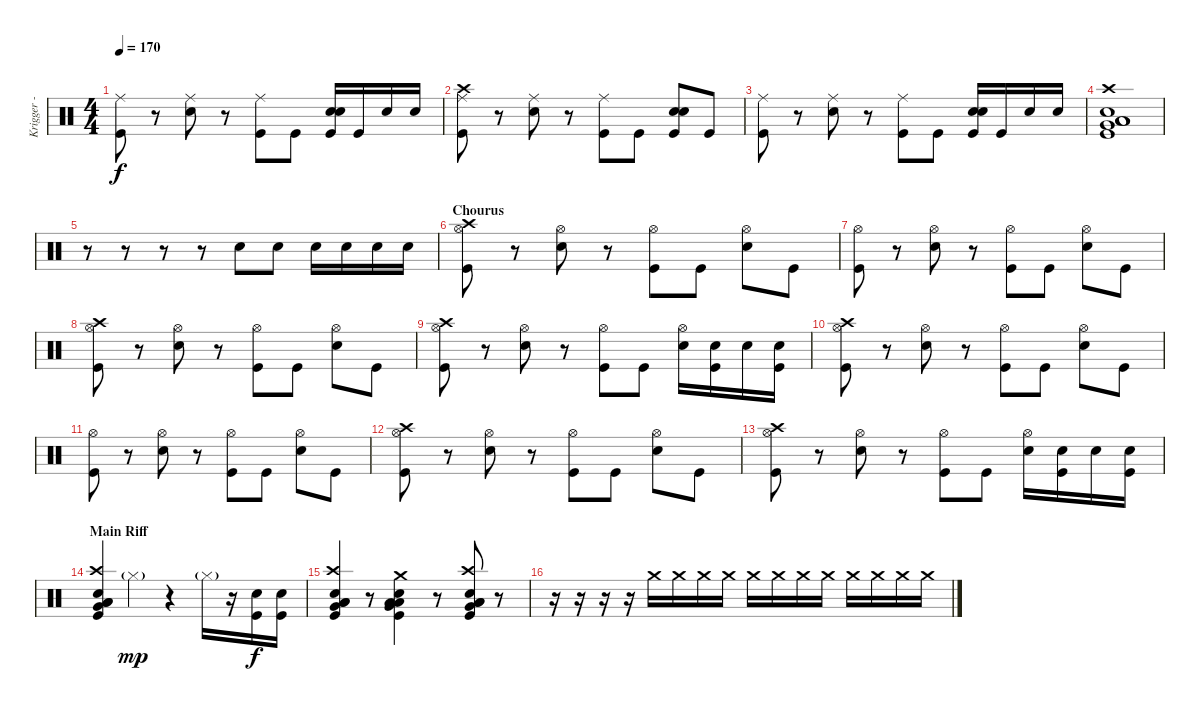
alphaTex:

\track ("Krigger - Drums" "Krigger - ") {instrument percussion}
\staff {score}
\articulation defaults
\ts (4 4)
\tempo 170
\clef neutral
\ks c
("Ride (middle)" "Kick (hit)").8{dy f} r.8 ("Ride (middle)" "Snare (hit) 2").8 r.8 ("Ride (middle)" "Kick (hit)").8 "Kick (hit)".8 ("Snare (hit)" "Snare (hit) 2" "Kick (hit)").16 "Kick (hit)".16 "Snare (hit) 2".16 "Snare (hit) 2".16 |
("Ride (middle)" "Crash high (hit)" "Kick (hit)").8 r.8 ("Ride (middle)" "Snare (hit) 2").8 r.8 ("Ride (middle)" "Kick (hit)").8 "Kick (hit)".8 ("Snare (hit)" "Snare (hit) 2" "Kick (hit)").8 "Kick (hit)".8 |
("Ride (middle)" "Kick (hit)").8 r.8 ("Ride (middle)" "Snare (hit) 2").8 r.8 ("Ride (middle)" "Kick (hit)").8 "Kick (hit)".8 ("Snare (hit)" "Snare (hit) 2" "Kick (hit)").16 "Kick (hit)".16 "Snare (hit) 2".16 "Snare (hit) 2".16 |
("Kick (hit)" "Snare (hit) 2" "Crash high (hit)" "Low Tom (hit)" "Very Low Tom (hit)" "Low Floor Tom (hit)").1 |
r.8 r.8 r.8 r.8 "Snare (hit) 2".8 "Snare (hit) 2".8 "Snare (hit) 2".16 "Snare (hit) 2".16 "Snare (hit) 2".16 "Snare (hit) 2".16 |
\section ("" "Chourus")
("Hi-Hat (open)" "Crash high (hit)" "Kick (hit)").8 r.8 ("Hi-Hat (open)" "Snare (hit) 2").8 r.8 ("Hi-Hat (open)" "Kick (hit)").8 "Kick (hit)".8 ("Hi-Hat (open)" "Snare (hit) 2").8 "Kick (hit)".8 |
("Hi-Hat (open)" "Kick (hit)").8 r.8 ("Hi-Hat (open)" "Snare (hit) 2").8 r.8 ("Hi-Hat (open)" "Kick (hit)").8 "Kick (hit)".8 ("Hi-Hat (open)" "Snare (hit) 2").8 "Kick (hit)".8 |
("Hi-Hat (open)" "Crash high (hit)" "Kick (hit)").8 r.8 ("Hi-Hat (open)" "Snare (hit) 2").8 r.8 ("Hi-Hat (open)" "Kick (hit)").8 "Kick (hit)".8 ("Hi-Hat (open)" "Snare (hit) 2").8 "Kick (hit)".8 |
("Hi-Hat (open)" "Crash high (hit)" "Kick (hit)").8 r.8 ("Hi-Hat (open)" "Snare (hit) 2").8 r.8 ("Hi-Hat (open)" "Kick (hit)").8 "Kick (hit)".8 ("Hi-Hat (open)" "Snare (hit) 2").16 ("Snare (hit) 2" "Kick (hit)").16 "Snare (hit) 2".16 ("Snare (hit) 2" "Kick (hit)").16 |
("Hi-Hat (open)" "Crash high (hit)" "Kick (hit)").8 r.8 ("Hi-Hat (open)" "Snare (hit) 2").8 r.8 ("Hi-Hat (open)" "Kick (hit)").8 "Kick (hit)".8 ("Hi-Hat (open)" "Snare (hit) 2").8 "Kick (hit)".8 |
("Hi-Hat (open)" "Kick (hit)").8 r.8 ("Hi-Hat (open)" "Snare (hit) 2").8 r.8 ("Hi-Hat (open)" "Kick (hit)").8 "Kick (hit)".8 ("Hi-Hat (open)" "Snare (hit) 2").8 "Kick (hit)".8 |
("Hi-Hat (open)" "Crash high (hit)" "Kick (hit)").8 r.8 ("Hi-Hat (open)" "Snare (hit) 2").8 r.8 ("Hi-Hat (open)" "Kick (hit)").8 "Kick (hit)".8 ("Hi-Hat (open)" "Snare (hit) 2").8 "Kick (hit)".8 |
("Hi-Hat (open)" "Crash high (hit)" "Kick (hit)").8 r.8 ("Hi-Hat (open)" "Snare (hit) 2").8 r.8 ("Hi-Hat (open)" "Kick (hit)").8 "Kick (hit)".8 ("Hi-Hat (open)" "Snare (hit) 2").16 ("Snare (hit) 2" "Kick (hit)").16 "Snare (hit) 2".16 ("Snare (hit) 2" "Kick (hit)").16 |
\section ("" "Main Riff")
("Kick (hit)" "Snare (hit) 2" "Crash high (hit)" "Low Tom (hit)" "Very Low Tom (hit)" "Low Floor Tom (hit)").4 "Hi-Hat (closed)"{g}.4{dy mp} r.4 "Hi-Hat (closed)"{g}.16 r.16 ("Kick (hit)" "Snare (hit) 2").16{dy f} ("Kick (hit)" "Snare (hit) 2").16 |
("Kick (hit)" "Snare (hit) 2" "Crash high (hit)" "Low Floor Tom (hit)" "Low Tom (hit)" "Very Low Tom (hit)").4 r.8 ("Kick (hit)" "Snare (hit) 2" "Crash medium (hit)" "Low Floor Tom (hit)" "Low Tom (hit)" "Very Low Tom (hit)").4 r.8 ("Kick (hit)" "Snare (hit) 2" "Crash high (hit)" "Low Floor Tom (hit)" "Low Tom (hit)" "Very Low Tom (hit)").8 r.8 |
r.16 r.16 r.16 r.16{volume 0} "Crash medium (hit)".16{volume 13} "Crash medium (hit)".16 "Crash medium (hit)".16 "Crash medium (hit)".16 "Crash medium (hit)".16 "Crash medium (hit)".16 "Crash medium (hit)".16 "Crash medium (hit)".16 "Crash medium (hit)".16 "Crash medium (hit)".16 "Crash medium (hit)".16 "Crash medium (hit)".16
